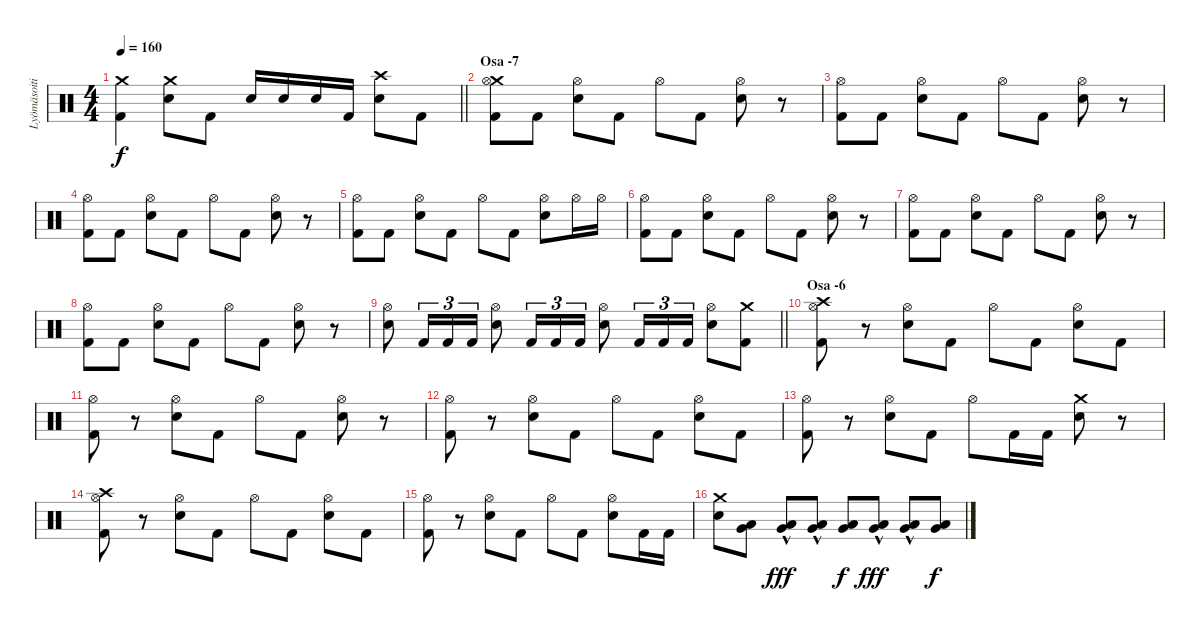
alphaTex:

\track ("Lyömäsoitin" "Lyömäsoiti") {instrument percussion}
\staff {score}
\articulation defaults
\ts (4 4)
\tempo 160
\clef neutral
\barLineRight lightlight
\ks c
("Crash medium (hit)" "Kick (hit) 2").4{dy f} ("Crash medium (hit)" "Snare (hit) 2").8 "Kick (hit) 2".8 "Snare (hit) 2".16 "Snare (hit) 2".16 "Snare (hit) 2".16 "Kick (hit) 2".16 ("Crash high (hit)" "Snare (hit) 2").8 "Kick (hit) 2".8 |
\section ("" "Osa -7")
("Crash medium (hit)" "Hi-Hat (open)" "Kick (hit) 2").8 "Kick (hit) 2".8 ("Hi-Hat (open)" "Snare (hit) 2").8 "Kick (hit) 2".8 "Hi-Hat (open)".8 "Kick (hit) 2".8 ("Hi-Hat (open)" "Snare (hit) 2").8 r.8 |
("Hi-Hat (open)" "Kick (hit) 2").8 "Kick (hit) 2".8 ("Hi-Hat (open)" "Snare (hit) 2").8 "Kick (hit) 2".8 "Hi-Hat (open)".8 "Kick (hit) 2".8 ("Hi-Hat (open)" "Snare (hit) 2").8 r.8 |
("Hi-Hat (open)" "Kick (hit) 2").8 "Kick (hit) 2".8 ("Hi-Hat (open)" "Snare (hit) 2").8 "Kick (hit) 2".8 "Hi-Hat (open)".8 "Kick (hit) 2".8 ("Hi-Hat (open)" "Snare (hit) 2").8 r.8 |
("Hi-Hat (open)" "Kick (hit) 2").8 "Kick (hit) 2".8 ("Hi-Hat (open)" "Snare (hit) 2").8 "Kick (hit) 2".8 "Hi-Hat (open)".8 "Kick (hit) 2".8 ("Hi-Hat (open)" "Snare (hit) 2").8 "Hi-Hat (open)".16 "Hi-Hat (open)".16 |
("Hi-Hat (open)" "Kick (hit) 2").8 "Kick (hit) 2".8 ("Hi-Hat (open)" "Snare (hit) 2").8 "Kick (hit) 2".8 "Hi-Hat (open)".8 "Kick (hit) 2".8 ("Hi-Hat (open)" "Snare (hit) 2").8 r.8 |
("Hi-Hat (open)" "Kick (hit) 2").8 "Kick (hit) 2".8 ("Hi-Hat (open)" "Snare (hit) 2").8 "Kick (hit) 2".8 "Hi-Hat (open)".8 "Kick (hit) 2".8 ("Hi-Hat (open)" "Snare (hit) 2").8 r.8 |
("Hi-Hat (open)" "Kick (hit) 2").8 "Kick (hit) 2".8 ("Hi-Hat (open)" "Snare (hit) 2").8 "Kick (hit) 2".8 "Hi-Hat (open)".8 "Kick (hit) 2".8 ("Hi-Hat (open)" "Snare (hit) 2").8 r.8 |
\barLineRight lightlight
("Hi-Hat (open)" "Snare (hit) 2").8 "Kick (hit) 2".16{tu (3 2)} "Kick (hit) 2".16{tu (3 2)} "Kick (hit) 2".16{tu (3 2)} ("Hi-Hat (open)" "Snare (hit) 2").8 "Kick (hit) 2".16{tu (3 2)} "Kick (hit) 2".16{tu (3 2)} "Kick (hit) 2".16{tu (3 2)} ("Hi-Hat (open)" "Snare (hit) 2").8 "Kick (hit) 2".16{tu (3 2)} "Kick (hit) 2".16{tu (3 2)} "Kick (hit) 2".16{tu (3 2)} ("Hi-Hat (open)" "Snare (hit) 2").8 ("Crash medium (hit)" "Kick (hit) 2").8 |
\section ("" "Osa -6")
("Crash high (hit)" "Hi-Hat (open)" "Kick (hit) 2").8 r.8 ("Hi-Hat (open)" "Snare (hit) 2").8 "Kick (hit) 2".8 "Hi-Hat (open)".8 "Kick (hit) 2".8 ("Hi-Hat (open)" "Snare (hit) 2").8 "Kick (hit) 2".8 |
("Hi-Hat (open)" "Kick (hit) 2").8 r.8 ("Hi-Hat (open)" "Snare (hit) 2").8 "Kick (hit) 2".8 "Hi-Hat (open)".8 "Kick (hit) 2".8 ("Hi-Hat (open)" "Snare (hit) 2").8 r.8 |
("Hi-Hat (open)" "Kick (hit) 2").8 r.8 ("Hi-Hat (open)" "Snare (hit) 2").8 "Kick (hit) 2".8 "Hi-Hat (open)".8 "Kick (hit) 2".8 ("Hi-Hat (open)" "Snare (hit) 2").8 "Kick (hit) 2".8 |
("Hi-Hat (open)" "Kick (hit) 2").8 r.8 ("Hi-Hat (open)" "Snare (hit) 2").8 "Kick (hit) 2".8 "Hi-Hat (open)".8 "Kick (hit) 2".16 "Kick (hit) 2".16 ("Crash medium (hit)" "Snare (hit) 2").8 r.8 |
("Crash high (hit)" "Hi-Hat (open)" "Kick (hit) 2").8 r.8 ("Hi-Hat (open)" "Snare (hit) 2").8 "Kick (hit) 2".8 "Hi-Hat (open)".8 "Kick (hit) 2".8 ("Hi-Hat (open)" "Snare (hit) 2").8 "Kick (hit) 2".8 |
("Hi-Hat (open)" "Kick (hit) 2").8 r.8 ("Hi-Hat (open)" "Snare (hit) 2").8 "Kick (hit) 2".8 "Hi-Hat (open)".8 "Kick (hit) 2".8 ("Hi-Hat (open)" "Snare (hit) 2").8 "Kick (hit) 2".16 "Kick (hit) 2".16 |
("Crash medium (hit)" "Snare (hit) 2").8 ("Low Tom (hit)" "Very Low Tom (hit)").8 ("Low Tom (hit)"{hac} "Very Low Tom (hit)"{hac}).8{dy fff} ("Low Tom (hit)"{hac} "Very Low Tom (hit)"{hac}).8 ("Low Tom (hit)" "Very Low Tom (hit)").8{dy f} ("Low Tom (hit)"{hac} "Very Low Tom (hit)"{hac}).8{dy fff} ("Low Tom (hit)"{hac} "Very Low Tom (hit)"{hac}).8 ("Low Tom (hit)" "Very Low Tom (hit)").8{dy f}
